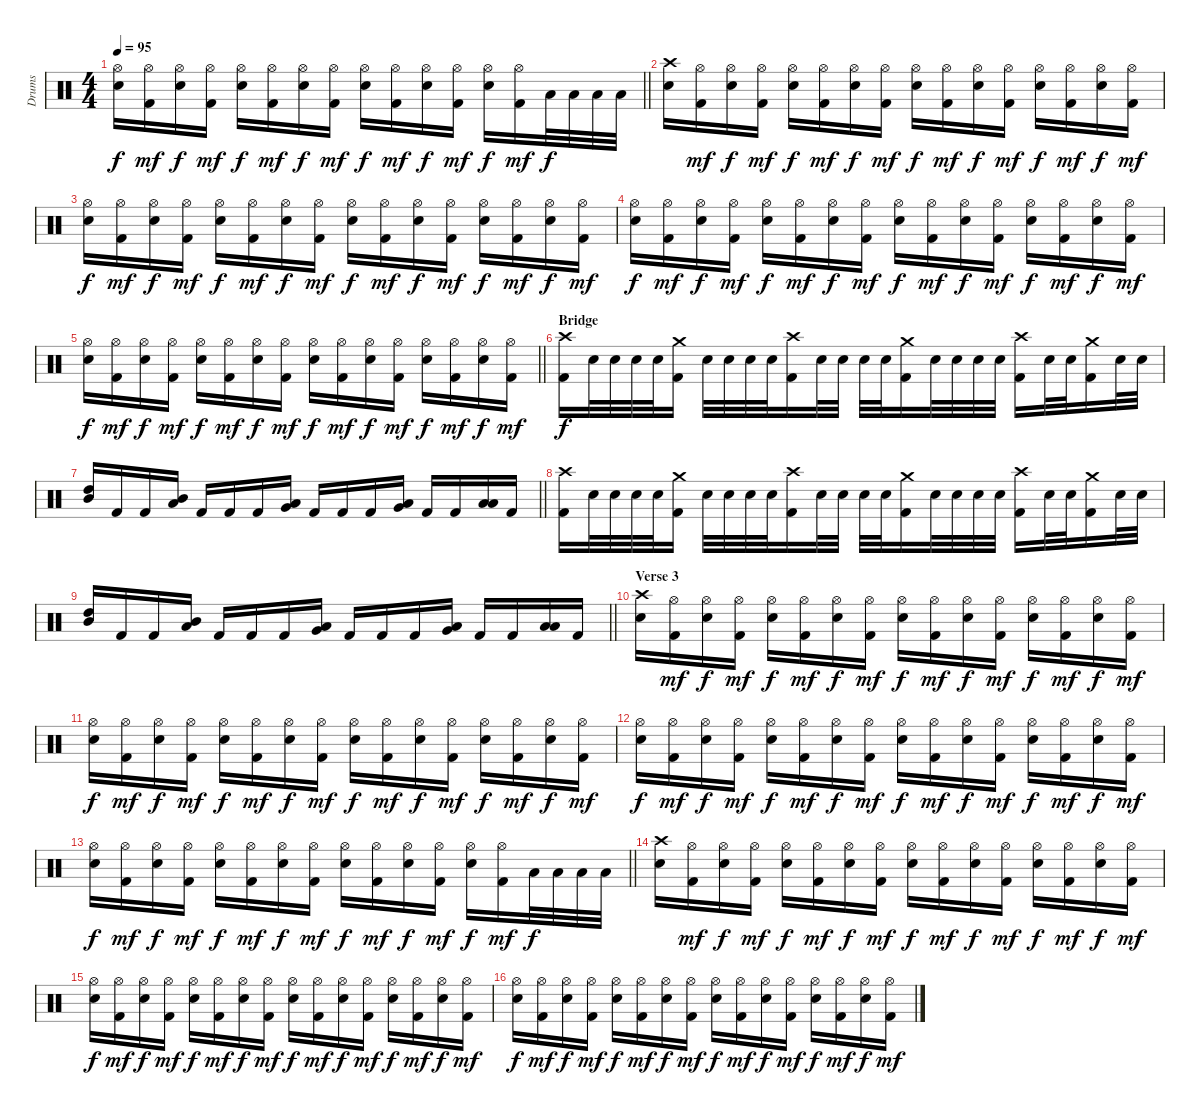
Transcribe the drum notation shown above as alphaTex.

\track ("Drums" "Drums") {instrument percussion}
\staff {score}
\articulation defaults
\ts (4 4)
\tempo 95
\clef neutral
\barLineRight lightlight
\ks c
("Hi-Hat (open)" "Snare (hit) 2").16{dy f} ("Hi-Hat (open)" "Kick (hit) 2").16{dy mf} ("Hi-Hat (open)" "Snare (hit) 2").16{dy f} ("Hi-Hat (open)" "Kick (hit) 2").16{dy mf} ("Hi-Hat (open)" "Snare (hit) 2").16{dy f} ("Hi-Hat (open)" "Kick (hit) 2").16{dy mf} ("Hi-Hat (open)" "Snare (hit) 2").16{dy f} ("Hi-Hat (open)" "Kick (hit) 2").16{dy mf} ("Hi-Hat (open)" "Snare (hit) 2").16{dy f} ("Hi-Hat (open)" "Kick (hit) 2").16{dy mf} ("Hi-Hat (open)" "Snare (hit) 2").16{dy f} ("Hi-Hat (open)" "Kick (hit) 2").16{dy mf} ("Hi-Hat (open)" "Snare (hit) 2").16{dy f} ("Hi-Hat (open)" "Kick (hit) 2").16{dy mf} "Low Tom (hit)".32{dy f} "Low Tom (hit)".32 "Low Tom (hit)".32 "Low Tom (hit)".32 |
("Crash high (hit)" "Snare (hit) 2").16 ("Hi-Hat (open)" "Kick (hit) 2").16{dy mf} ("Hi-Hat (open)" "Snare (hit) 2").16{dy f} ("Hi-Hat (open)" "Kick (hit) 2").16{dy mf} ("Hi-Hat (open)" "Snare (hit) 2").16{dy f} ("Hi-Hat (open)" "Kick (hit) 2").16{dy mf} ("Hi-Hat (open)" "Snare (hit) 2").16{dy f} ("Hi-Hat (open)" "Kick (hit) 2").16{dy mf} ("Hi-Hat (open)" "Snare (hit) 2").16{dy f} ("Hi-Hat (open)" "Kick (hit) 2").16{dy mf} ("Hi-Hat (open)" "Snare (hit) 2").16{dy f} ("Hi-Hat (open)" "Kick (hit) 2").16{dy mf} ("Hi-Hat (open)" "Snare (hit) 2").16{dy f} ("Hi-Hat (open)" "Kick (hit) 2").16{dy mf} ("Hi-Hat (open)" "Snare (hit) 2").16{dy f} ("Hi-Hat (open)" "Kick (hit) 2").16{dy mf} |
("Hi-Hat (open)" "Snare (hit) 2").16{dy f} ("Hi-Hat (open)" "Kick (hit) 2").16{dy mf} ("Hi-Hat (open)" "Snare (hit) 2").16{dy f} ("Hi-Hat (open)" "Kick (hit) 2").16{dy mf} ("Hi-Hat (open)" "Snare (hit) 2").16{dy f} ("Hi-Hat (open)" "Kick (hit) 2").16{dy mf} ("Hi-Hat (open)" "Snare (hit) 2").16{dy f} ("Hi-Hat (open)" "Kick (hit) 2").16{dy mf} ("Hi-Hat (open)" "Snare (hit) 2").16{dy f} ("Hi-Hat (open)" "Kick (hit) 2").16{dy mf} ("Hi-Hat (open)" "Snare (hit) 2").16{dy f} ("Hi-Hat (open)" "Kick (hit) 2").16{dy mf} ("Hi-Hat (open)" "Snare (hit) 2").16{dy f} ("Hi-Hat (open)" "Kick (hit) 2").16{dy mf} ("Hi-Hat (open)" "Snare (hit) 2").16{dy f} ("Hi-Hat (open)" "Kick (hit) 2").16{dy mf} |
("Hi-Hat (open)" "Snare (hit) 2").16{dy f} ("Hi-Hat (open)" "Kick (hit) 2").16{dy mf} ("Hi-Hat (open)" "Snare (hit) 2").16{dy f} ("Hi-Hat (open)" "Kick (hit) 2").16{dy mf} ("Hi-Hat (open)" "Snare (hit) 2").16{dy f} ("Hi-Hat (open)" "Kick (hit) 2").16{dy mf} ("Hi-Hat (open)" "Snare (hit) 2").16{dy f} ("Hi-Hat (open)" "Kick (hit) 2").16{dy mf} ("Hi-Hat (open)" "Snare (hit) 2").16{dy f} ("Hi-Hat (open)" "Kick (hit) 2").16{dy mf} ("Hi-Hat (open)" "Snare (hit) 2").16{dy f} ("Hi-Hat (open)" "Kick (hit) 2").16{dy mf} ("Hi-Hat (open)" "Snare (hit) 2").16{dy f} ("Hi-Hat (open)" "Kick (hit) 2").16{dy mf} ("Hi-Hat (open)" "Snare (hit) 2").16{dy f} ("Hi-Hat (open)" "Kick (hit) 2").16{dy mf} |
\barLineRight lightlight
("Hi-Hat (open)" "Snare (hit) 2").16{dy f} ("Hi-Hat (open)" "Kick (hit) 2").16{dy mf} ("Hi-Hat (open)" "Snare (hit) 2").16{dy f} ("Hi-Hat (open)" "Kick (hit) 2").16{dy mf} ("Hi-Hat (open)" "Snare (hit) 2").16{dy f} ("Hi-Hat (open)" "Kick (hit) 2").16{dy mf} ("Hi-Hat (open)" "Snare (hit) 2").16{dy f} ("Hi-Hat (open)" "Kick (hit) 2").16{dy mf} ("Hi-Hat (open)" "Snare (hit) 2").16{dy f} ("Hi-Hat (open)" "Kick (hit) 2").16{dy mf} ("Hi-Hat (open)" "Snare (hit) 2").16{dy f} ("Hi-Hat (open)" "Kick (hit) 2").16{dy mf} ("Hi-Hat (open)" "Snare (hit) 2").16{dy f} ("Hi-Hat (open)" "Kick (hit) 2").16{dy mf} ("Hi-Hat (open)" "Snare (hit) 2").16{dy f} ("Hi-Hat (open)" "Kick (hit) 2").16{dy mf} |
\section ("" "Bridge")
("Crash high (hit)" "Kick (hit) 2").16{dy f} "Snare (hit) 2".32 "Snare (hit) 2".32 "Snare (hit) 2".32 "Snare (hit) 2".32 ("Crash medium (hit)" "Kick (hit) 2").16 "Snare (hit) 2".32 "Snare (hit) 2".32 "Snare (hit) 2".32 "Snare (hit) 2".32 ("Crash high (hit)" "Kick (hit) 2").16 "Snare (hit) 2".32 "Snare (hit) 2".32 "Snare (hit) 2".32 "Snare (hit) 2".32 ("Crash medium (hit)" "Kick (hit) 2").16 "Snare (hit) 2".32 "Snare (hit) 2".32 "Snare (hit) 2".32 "Snare (hit) 2".32 ("Crash high (hit)" "Kick (hit) 2").16 "Snare (hit) 2".32 "Snare (hit) 2".32 ("Crash medium (hit)" "Kick (hit) 2").16 "Snare (hit) 2".32 "Snare (hit) 2".32 |
\barLineRight lightlight
("High Tom (hit)" "Mid Tom (hit)").16 "Kick (hit) 2".16 "Kick (hit) 2".16 ("Mid Tom (hit)" "Low Tom (hit)").16 "Kick (hit) 2".16 "Kick (hit) 2".16 "Kick (hit) 2".16 ("Low Tom (hit)" "Very Low Tom (hit)").16 "Kick (hit) 2".16 "Kick (hit) 2".16 "Kick (hit) 2".16 ("Very Low Tom (hit)" "Low Floor Tom (hit)").16 "Kick (hit) 2".16 "Kick (hit) 2".16 ("Low Floor Tom (hit)" "Low Floor Tom (hit)").16 "Kick (hit) 2".16 |
("Crash high (hit)" "Kick (hit) 2").16 "Snare (hit) 2".32 "Snare (hit) 2".32 "Snare (hit) 2".32 "Snare (hit) 2".32 ("Crash medium (hit)" "Kick (hit) 2").16 "Snare (hit) 2".32 "Snare (hit) 2".32 "Snare (hit) 2".32 "Snare (hit) 2".32 ("Crash high (hit)" "Kick (hit) 2").16 "Snare (hit) 2".32 "Snare (hit) 2".32 "Snare (hit) 2".32 "Snare (hit) 2".32 ("Crash medium (hit)" "Kick (hit) 2").16 "Snare (hit) 2".32 "Snare (hit) 2".32 "Snare (hit) 2".32 "Snare (hit) 2".32 ("Crash high (hit)" "Kick (hit) 2").16 "Snare (hit) 2".32 "Snare (hit) 2".32 ("Crash medium (hit)" "Kick (hit) 2").16 "Snare (hit) 2".32 "Snare (hit) 2".32 |
\barLineRight lightlight
("High Tom (hit)" "Mid Tom (hit)").16 "Kick (hit) 2".16 "Kick (hit) 2".16 ("Mid Tom (hit)" "Low Tom (hit)").16 "Kick (hit) 2".16 "Kick (hit) 2".16 "Kick (hit) 2".16 ("Low Tom (hit)" "Very Low Tom (hit)").16 "Kick (hit) 2".16 "Kick (hit) 2".16 "Kick (hit) 2".16 ("Very Low Tom (hit)" "Low Floor Tom (hit)").16 "Kick (hit) 2".16 "Kick (hit) 2".16 ("Low Floor Tom (hit)" "Low Floor Tom (hit)").16 "Kick (hit) 2".16 |
\section ("" "Verse 3")
("Crash high (hit)" "Snare (hit) 2").16 ("Hi-Hat (open)" "Kick (hit) 2").16{dy mf} ("Hi-Hat (open)" "Snare (hit) 2").16{dy f} ("Hi-Hat (open)" "Kick (hit) 2").16{dy mf} ("Hi-Hat (open)" "Snare (hit) 2").16{dy f} ("Hi-Hat (open)" "Kick (hit) 2").16{dy mf} ("Hi-Hat (open)" "Snare (hit) 2").16{dy f} ("Hi-Hat (open)" "Kick (hit) 2").16{dy mf} ("Hi-Hat (open)" "Snare (hit) 2").16{dy f} ("Hi-Hat (open)" "Kick (hit) 2").16{dy mf} ("Hi-Hat (open)" "Snare (hit) 2").16{dy f} ("Hi-Hat (open)" "Kick (hit) 2").16{dy mf} ("Hi-Hat (open)" "Snare (hit) 2").16{dy f} ("Hi-Hat (open)" "Kick (hit) 2").16{dy mf} ("Hi-Hat (open)" "Snare (hit) 2").16{dy f} ("Hi-Hat (open)" "Kick (hit) 2").16{dy mf} |
("Hi-Hat (open)" "Snare (hit) 2").16{dy f} ("Hi-Hat (open)" "Kick (hit) 2").16{dy mf} ("Hi-Hat (open)" "Snare (hit) 2").16{dy f} ("Hi-Hat (open)" "Kick (hit) 2").16{dy mf} ("Hi-Hat (open)" "Snare (hit) 2").16{dy f} ("Hi-Hat (open)" "Kick (hit) 2").16{dy mf} ("Hi-Hat (open)" "Snare (hit) 2").16{dy f} ("Hi-Hat (open)" "Kick (hit) 2").16{dy mf} ("Hi-Hat (open)" "Snare (hit) 2").16{dy f} ("Hi-Hat (open)" "Kick (hit) 2").16{dy mf} ("Hi-Hat (open)" "Snare (hit) 2").16{dy f} ("Hi-Hat (open)" "Kick (hit) 2").16{dy mf} ("Hi-Hat (open)" "Snare (hit) 2").16{dy f} ("Hi-Hat (open)" "Kick (hit) 2").16{dy mf} ("Hi-Hat (open)" "Snare (hit) 2").16{dy f} ("Hi-Hat (open)" "Kick (hit) 2").16{dy mf} |
("Hi-Hat (open)" "Snare (hit) 2").16{dy f} ("Hi-Hat (open)" "Kick (hit) 2").16{dy mf} ("Hi-Hat (open)" "Snare (hit) 2").16{dy f} ("Hi-Hat (open)" "Kick (hit) 2").16{dy mf} ("Hi-Hat (open)" "Snare (hit) 2").16{dy f} ("Hi-Hat (open)" "Kick (hit) 2").16{dy mf} ("Hi-Hat (open)" "Snare (hit) 2").16{dy f} ("Hi-Hat (open)" "Kick (hit) 2").16{dy mf} ("Hi-Hat (open)" "Snare (hit) 2").16{dy f} ("Hi-Hat (open)" "Kick (hit) 2").16{dy mf} ("Hi-Hat (open)" "Snare (hit) 2").16{dy f} ("Hi-Hat (open)" "Kick (hit) 2").16{dy mf} ("Hi-Hat (open)" "Snare (hit) 2").16{dy f} ("Hi-Hat (open)" "Kick (hit) 2").16{dy mf} ("Hi-Hat (open)" "Snare (hit) 2").16{dy f} ("Hi-Hat (open)" "Kick (hit) 2").16{dy mf} |
\barLineRight lightlight
("Hi-Hat (open)" "Snare (hit) 2").16{dy f} ("Hi-Hat (open)" "Kick (hit) 2").16{dy mf} ("Hi-Hat (open)" "Snare (hit) 2").16{dy f} ("Hi-Hat (open)" "Kick (hit) 2").16{dy mf} ("Hi-Hat (open)" "Snare (hit) 2").16{dy f} ("Hi-Hat (open)" "Kick (hit) 2").16{dy mf} ("Hi-Hat (open)" "Snare (hit) 2").16{dy f} ("Hi-Hat (open)" "Kick (hit) 2").16{dy mf} ("Hi-Hat (open)" "Snare (hit) 2").16{dy f} ("Hi-Hat (open)" "Kick (hit) 2").16{dy mf} ("Hi-Hat (open)" "Snare (hit) 2").16{dy f} ("Hi-Hat (open)" "Kick (hit) 2").16{dy mf} ("Hi-Hat (open)" "Snare (hit) 2").16{dy f} ("Hi-Hat (open)" "Kick (hit) 2").16{dy mf} "Low Tom (hit)".32{dy f} "Low Tom (hit)".32 "Low Tom (hit)".32 "Low Tom (hit)".32 |
("Crash high (hit)" "Snare (hit) 2").16 ("Hi-Hat (open)" "Kick (hit) 2").16{dy mf} ("Hi-Hat (open)" "Snare (hit) 2").16{dy f} ("Hi-Hat (open)" "Kick (hit) 2").16{dy mf} ("Hi-Hat (open)" "Snare (hit) 2").16{dy f} ("Hi-Hat (open)" "Kick (hit) 2").16{dy mf} ("Hi-Hat (open)" "Snare (hit) 2").16{dy f} ("Hi-Hat (open)" "Kick (hit) 2").16{dy mf} ("Hi-Hat (open)" "Snare (hit) 2").16{dy f} ("Hi-Hat (open)" "Kick (hit) 2").16{dy mf} ("Hi-Hat (open)" "Snare (hit) 2").16{dy f} ("Hi-Hat (open)" "Kick (hit) 2").16{dy mf} ("Hi-Hat (open)" "Snare (hit) 2").16{dy f} ("Hi-Hat (open)" "Kick (hit) 2").16{dy mf} ("Hi-Hat (open)" "Snare (hit) 2").16{dy f} ("Hi-Hat (open)" "Kick (hit) 2").16{dy mf} |
("Hi-Hat (open)" "Snare (hit) 2").16{dy f} ("Hi-Hat (open)" "Kick (hit) 2").16{dy mf} ("Hi-Hat (open)" "Snare (hit) 2").16{dy f} ("Hi-Hat (open)" "Kick (hit) 2").16{dy mf} ("Hi-Hat (open)" "Snare (hit) 2").16{dy f} ("Hi-Hat (open)" "Kick (hit) 2").16{dy mf} ("Hi-Hat (open)" "Snare (hit) 2").16{dy f} ("Hi-Hat (open)" "Kick (hit) 2").16{dy mf} ("Hi-Hat (open)" "Snare (hit) 2").16{dy f} ("Hi-Hat (open)" "Kick (hit) 2").16{dy mf} ("Hi-Hat (open)" "Snare (hit) 2").16{dy f} ("Hi-Hat (open)" "Kick (hit) 2").16{dy mf} ("Hi-Hat (open)" "Snare (hit) 2").16{dy f} ("Hi-Hat (open)" "Kick (hit) 2").16{dy mf} ("Hi-Hat (open)" "Snare (hit) 2").16{dy f} ("Hi-Hat (open)" "Kick (hit) 2").16{dy mf} |
("Hi-Hat (open)" "Snare (hit) 2").16{dy f} ("Hi-Hat (open)" "Kick (hit) 2").16{dy mf} ("Hi-Hat (open)" "Snare (hit) 2").16{dy f} ("Hi-Hat (open)" "Kick (hit) 2").16{dy mf} ("Hi-Hat (open)" "Snare (hit) 2").16{dy f} ("Hi-Hat (open)" "Kick (hit) 2").16{dy mf} ("Hi-Hat (open)" "Snare (hit) 2").16{dy f} ("Hi-Hat (open)" "Kick (hit) 2").16{dy mf} ("Hi-Hat (open)" "Snare (hit) 2").16{dy f} ("Hi-Hat (open)" "Kick (hit) 2").16{dy mf} ("Hi-Hat (open)" "Snare (hit) 2").16{dy f} ("Hi-Hat (open)" "Kick (hit) 2").16{dy mf} ("Hi-Hat (open)" "Snare (hit) 2").16{dy f} ("Hi-Hat (open)" "Kick (hit) 2").16{dy mf} ("Hi-Hat (open)" "Snare (hit) 2").16{dy f} ("Hi-Hat (open)" "Kick (hit) 2").16{dy mf}
